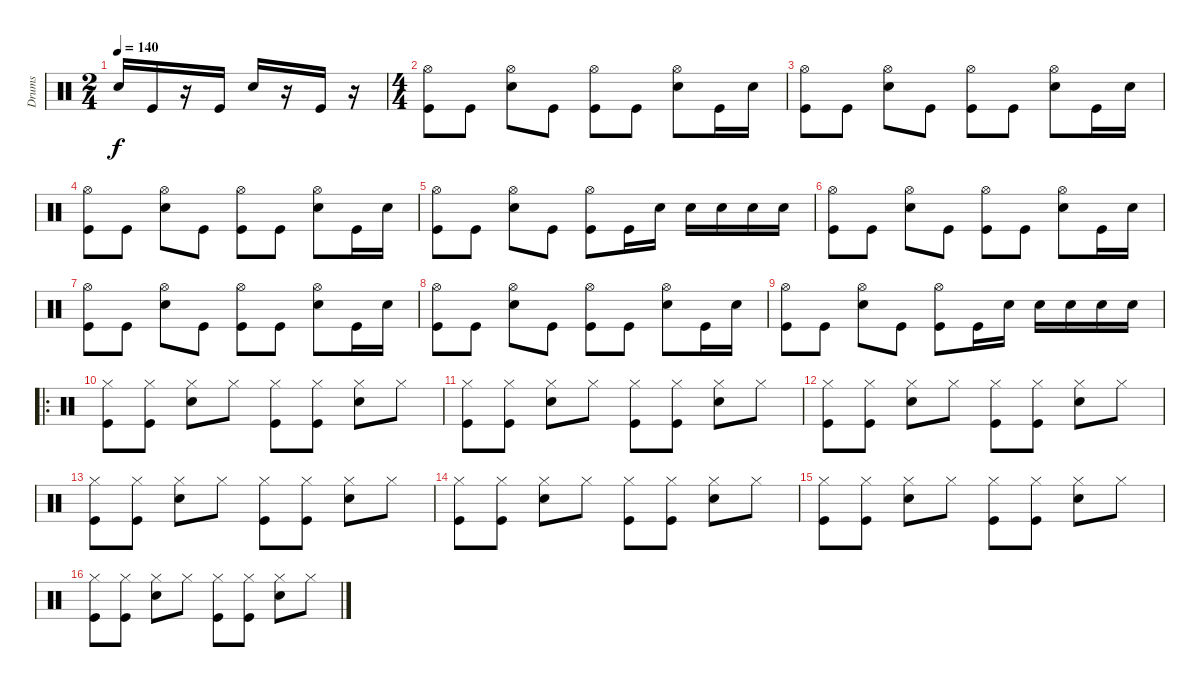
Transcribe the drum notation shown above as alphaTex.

\track ("Drums" "Drums") {instrument percussion}
\staff {score}
\articulation defaults
\ts (2 4)
\tempo 140
\clef neutral
\ks c "Snare (hit) 2".16{dy f} "Kick (hit)".16
r.16 "Kick (hit)".16 "Snare (hit) 2".16 r.16 "Kick (hit)".16 r.16 |
\ts (4 4)
("Hi-Hat (open)" "Kick (hit)").8 "Kick (hit)".8 ("Hi-Hat (open)" "Snare (hit) 2").8 "Kick (hit)".8 ("Hi-Hat (open)" "Kick (hit)").8 "Kick (hit)".8 ("Hi-Hat (open)" "Snare (hit) 2").8 "Kick (hit)".16 "Snare (hit) 2".16 |
("Hi-Hat (open)" "Kick (hit)").8 "Kick (hit)".8 ("Hi-Hat (open)" "Snare (hit) 2").8 "Kick (hit)".8 ("Hi-Hat (open)" "Kick (hit)").8 "Kick (hit)".8 ("Hi-Hat (open)" "Snare (hit) 2").8 "Kick (hit)".16 "Snare (hit) 2".16 |
("Hi-Hat (open)" "Kick (hit)").8 "Kick (hit)".8 ("Hi-Hat (open)" "Snare (hit) 2").8 "Kick (hit)".8 ("Hi-Hat (open)" "Kick (hit)").8 "Kick (hit)".8 ("Hi-Hat (open)" "Snare (hit) 2").8 "Kick (hit)".16 "Snare (hit) 2".16 |
("Hi-Hat (open)" "Kick (hit)").8 "Kick (hit)".8 ("Hi-Hat (open)" "Snare (hit) 2").8 "Kick (hit)".8 ("Hi-Hat (open)" "Kick (hit)").8 "Kick (hit)".16 "Snare (hit) 2".16 "Snare (hit) 2".16 "Snare (hit) 2".16 "Snare (hit) 2".16 "Snare (hit) 2".16 |
("Hi-Hat (open)" "Kick (hit)").8 "Kick (hit)".8 ("Hi-Hat (open)" "Snare (hit) 2").8 "Kick (hit)".8 ("Hi-Hat (open)" "Kick (hit)").8 "Kick (hit)".8 ("Hi-Hat (open)" "Snare (hit) 2").8 "Kick (hit)".16 "Snare (hit) 2".16 |
("Hi-Hat (open)" "Kick (hit)").8 "Kick (hit)".8 ("Hi-Hat (open)" "Snare (hit) 2").8 "Kick (hit)".8 ("Hi-Hat (open)" "Kick (hit)").8 "Kick (hit)".8 ("Hi-Hat (open)" "Snare (hit) 2").8 "Kick (hit)".16 "Snare (hit) 2".16 |
("Hi-Hat (open)" "Kick (hit)").8 "Kick (hit)".8 ("Hi-Hat (open)" "Snare (hit) 2").8 "Kick (hit)".8 ("Hi-Hat (open)" "Kick (hit)").8 "Kick (hit)".8 ("Hi-Hat (open)" "Snare (hit) 2").8 "Kick (hit)".16 "Snare (hit) 2".16 |
("Hi-Hat (open)" "Kick (hit)").8 "Kick (hit)".8 ("Hi-Hat (open)" "Snare (hit) 2").8 "Kick (hit)".8 ("Hi-Hat (open)" "Kick (hit)").8 "Kick (hit)".16 "Snare (hit) 2".16 "Snare (hit) 2".16 "Snare (hit) 2".16 "Snare (hit) 2".16 "Snare (hit) 2".16 |
\ro
("Hi-Hat (closed)" "Kick (hit)").8 ("Hi-Hat (closed)" "Kick (hit)").8 ("Hi-Hat (closed)" "Snare (hit) 2").8 "Hi-Hat (closed)".8 ("Hi-Hat (closed)" "Kick (hit)").8 ("Hi-Hat (closed)" "Kick (hit)").8 ("Hi-Hat (closed)" "Snare (hit) 2").8 "Hi-Hat (closed)".8 |
("Hi-Hat (closed)" "Kick (hit)").8 ("Hi-Hat (closed)" "Kick (hit)").8 ("Hi-Hat (closed)" "Snare (hit) 2").8 "Hi-Hat (closed)".8 ("Hi-Hat (closed)" "Kick (hit)").8 ("Hi-Hat (closed)" "Kick (hit)").8 ("Hi-Hat (closed)" "Snare (hit) 2").8 "Hi-Hat (closed)".8 |
("Hi-Hat (closed)" "Kick (hit)").8 ("Hi-Hat (closed)" "Kick (hit)").8 ("Hi-Hat (closed)" "Snare (hit) 2").8 "Hi-Hat (closed)".8 ("Hi-Hat (closed)" "Kick (hit)").8 ("Hi-Hat (closed)" "Kick (hit)").8 ("Hi-Hat (closed)" "Snare (hit) 2").8 "Hi-Hat (closed)".8 |
("Hi-Hat (closed)" "Kick (hit)").8 ("Hi-Hat (closed)" "Kick (hit)").8 ("Hi-Hat (closed)" "Snare (hit) 2").8 "Hi-Hat (closed)".8 ("Hi-Hat (closed)" "Kick (hit)").8 ("Hi-Hat (closed)" "Kick (hit)").8 ("Hi-Hat (closed)" "Snare (hit) 2").8 "Hi-Hat (closed)".8 |
("Hi-Hat (closed)" "Kick (hit)").8 ("Hi-Hat (closed)" "Kick (hit)").8 ("Hi-Hat (closed)" "Snare (hit) 2").8 "Hi-Hat (closed)".8 ("Hi-Hat (closed)" "Kick (hit)").8 ("Hi-Hat (closed)" "Kick (hit)").8 ("Hi-Hat (closed)" "Snare (hit) 2").8 "Hi-Hat (closed)".8 |
("Hi-Hat (closed)" "Kick (hit)").8 ("Hi-Hat (closed)" "Kick (hit)").8 ("Hi-Hat (closed)" "Snare (hit) 2").8 "Hi-Hat (closed)".8 ("Hi-Hat (closed)" "Kick (hit)").8 ("Hi-Hat (closed)" "Kick (hit)").8 ("Hi-Hat (closed)" "Snare (hit) 2").8 "Hi-Hat (closed)".8 |
("Hi-Hat (closed)" "Kick (hit)").8 ("Hi-Hat (closed)" "Kick (hit)").8 ("Hi-Hat (closed)" "Snare (hit) 2").8 "Hi-Hat (closed)".8 ("Hi-Hat (closed)" "Kick (hit)").8 ("Hi-Hat (closed)" "Kick (hit)").8 ("Hi-Hat (closed)" "Snare (hit) 2").8 "Hi-Hat (closed)".8
